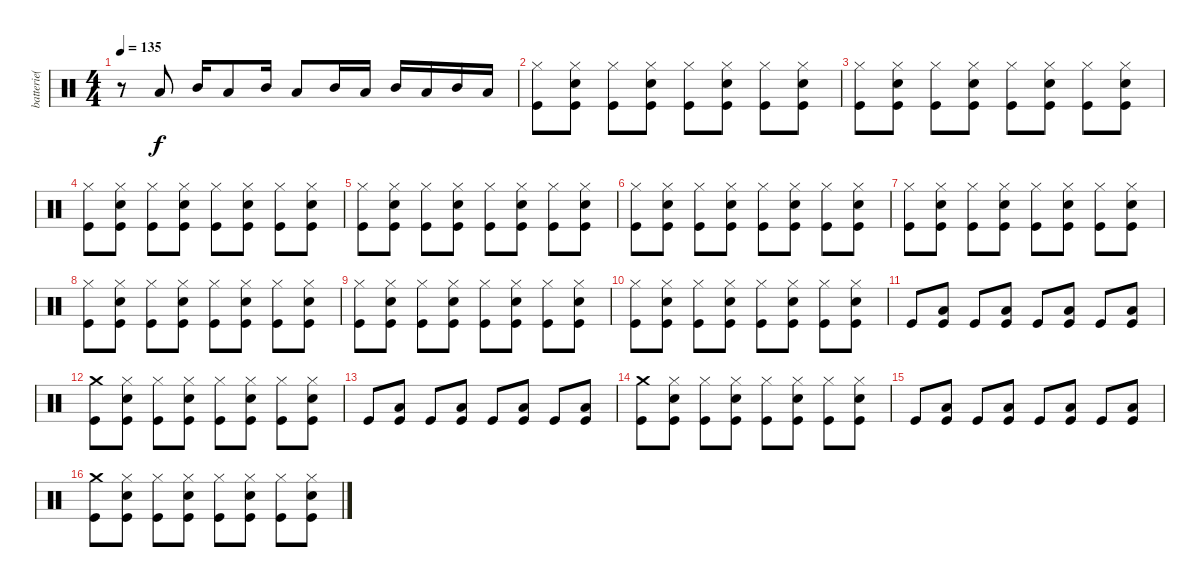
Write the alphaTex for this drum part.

\track ("batterie( Shane )" "batterie( ") {instrument percussion}
\staff {score}
\articulation defaults
\ts (4 4)
\tempo 135
\clef neutral
\ks c
r.8{dy f} "Low Tom (hit)".8 "Mid Tom (hit)".16 "Low Tom (hit)".8 "Mid Tom (hit)".16 "Low Tom (hit)".8 "Mid Tom (hit)".16 "Low Tom (hit)".16 "Mid Tom (hit)".16 "Low Tom (hit)".16 "Mid Tom (hit)".16 "Low Tom (hit)".16 |
("Hi-Hat (closed)" "Kick (hit)").8 ("Hi-Hat (closed)" "Snare (hit) 2" "Kick (hit)").8 ("Hi-Hat (closed)" "Kick (hit)").8 ("Hi-Hat (closed)" "Snare (hit) 2" "Kick (hit)").8 ("Hi-Hat (closed)" "Kick (hit)").8 ("Hi-Hat (closed)" "Snare (hit) 2" "Kick (hit)").8 ("Hi-Hat (closed)" "Kick (hit)").8 ("Hi-Hat (closed)" "Snare (hit) 2" "Kick (hit)").8 |
("Hi-Hat (closed)" "Kick (hit)").8 ("Hi-Hat (closed)" "Snare (hit) 2" "Kick (hit)").8 ("Hi-Hat (closed)" "Kick (hit)").8 ("Hi-Hat (closed)" "Snare (hit) 2" "Kick (hit)").8 ("Hi-Hat (closed)" "Kick (hit)").8 ("Hi-Hat (closed)" "Snare (hit) 2" "Kick (hit)").8 ("Hi-Hat (closed)" "Kick (hit)").8 ("Hi-Hat (closed)" "Snare (hit) 2" "Kick (hit)").8 |
("Hi-Hat (closed)" "Kick (hit)").8 ("Hi-Hat (closed)" "Snare (hit) 2" "Kick (hit)").8 ("Hi-Hat (closed)" "Kick (hit)").8 ("Hi-Hat (closed)" "Snare (hit) 2" "Kick (hit)").8 ("Hi-Hat (closed)" "Kick (hit)").8 ("Hi-Hat (closed)" "Snare (hit) 2" "Kick (hit)").8 ("Hi-Hat (closed)" "Kick (hit)").8 ("Hi-Hat (closed)" "Snare (hit) 2" "Kick (hit)").8 |
("Hi-Hat (closed)" "Kick (hit)").8 ("Hi-Hat (closed)" "Snare (hit) 2" "Kick (hit)").8 ("Hi-Hat (closed)" "Kick (hit)").8 ("Hi-Hat (closed)" "Snare (hit) 2" "Kick (hit)").8 ("Hi-Hat (closed)" "Kick (hit)").8 ("Hi-Hat (closed)" "Snare (hit) 2" "Kick (hit)").8 ("Hi-Hat (closed)" "Kick (hit)").8 ("Hi-Hat (closed)" "Snare (hit) 2" "Kick (hit)").8 |
("Hi-Hat (closed)" "Kick (hit)").8 ("Hi-Hat (closed)" "Snare (hit) 2" "Kick (hit)").8 ("Hi-Hat (closed)" "Kick (hit)").8 ("Hi-Hat (closed)" "Snare (hit) 2" "Kick (hit)").8 ("Hi-Hat (closed)" "Kick (hit)").8 ("Hi-Hat (closed)" "Snare (hit) 2" "Kick (hit)").8 ("Hi-Hat (closed)" "Kick (hit)").8 ("Hi-Hat (closed)" "Snare (hit) 2" "Kick (hit)").8 |
("Hi-Hat (closed)" "Kick (hit)").8 ("Hi-Hat (closed)" "Snare (hit) 2" "Kick (hit)").8 ("Hi-Hat (closed)" "Kick (hit)").8 ("Hi-Hat (closed)" "Snare (hit) 2" "Kick (hit)").8 ("Hi-Hat (closed)" "Kick (hit)").8 ("Hi-Hat (closed)" "Snare (hit) 2" "Kick (hit)").8 ("Hi-Hat (closed)" "Kick (hit)").8 ("Hi-Hat (closed)" "Snare (hit) 2" "Kick (hit)").8 |
("Hi-Hat (closed)" "Kick (hit)").8 ("Hi-Hat (closed)" "Snare (hit) 2" "Kick (hit)").8 ("Hi-Hat (closed)" "Kick (hit)").8 ("Hi-Hat (closed)" "Snare (hit) 2" "Kick (hit)").8 ("Hi-Hat (closed)" "Kick (hit)").8 ("Hi-Hat (closed)" "Snare (hit) 2" "Kick (hit)").8 ("Hi-Hat (closed)" "Kick (hit)").8 ("Hi-Hat (closed)" "Snare (hit) 2" "Kick (hit)").8 |
("Hi-Hat (closed)" "Kick (hit)").8 ("Hi-Hat (closed)" "Snare (hit) 2" "Kick (hit)").8 ("Hi-Hat (closed)" "Kick (hit)").8 ("Hi-Hat (closed)" "Snare (hit) 2" "Kick (hit)").8 ("Hi-Hat (closed)" "Kick (hit)").8 ("Hi-Hat (closed)" "Snare (hit) 2" "Kick (hit)").8 ("Hi-Hat (closed)" "Kick (hit)").8 ("Hi-Hat (closed)" "Snare (hit) 2" "Kick (hit)").8 |
("Hi-Hat (closed)" "Kick (hit)").8 ("Hi-Hat (closed)" "Snare (hit) 2" "Kick (hit)").8 ("Hi-Hat (closed)" "Kick (hit)").8 ("Hi-Hat (closed)" "Snare (hit) 2" "Kick (hit)").8 ("Hi-Hat (closed)" "Kick (hit)").8 ("Hi-Hat (closed)" "Snare (hit) 2" "Kick (hit)").8 ("Hi-Hat (closed)" "Kick (hit)").8 ("Hi-Hat (closed)" "Snare (hit) 2" "Kick (hit)").8 |
"Kick (hit)".8 ("Low Floor Tom (hit)" "Kick (hit)").8 "Kick (hit)".8 ("Low Floor Tom (hit)" "Kick (hit)").8 "Kick (hit)".8 ("Low Floor Tom (hit)" "Kick (hit)").8 "Kick (hit)".8 ("Low Floor Tom (hit)" "Kick (hit)").8 |
("Crash medium (hit)" "Kick (hit)").8 ("Hi-Hat (closed)" "Snare (hit) 2" "Kick (hit)").8 ("Hi-Hat (closed)" "Kick (hit)").8 ("Hi-Hat (closed)" "Snare (hit) 2" "Kick (hit)").8 ("Hi-Hat (closed)" "Kick (hit)").8 ("Hi-Hat (closed)" "Snare (hit) 2" "Kick (hit)").8 ("Hi-Hat (closed)" "Kick (hit)").8 ("Hi-Hat (closed)" "Snare (hit) 2" "Kick (hit)").8 |
"Kick (hit)".8 ("Low Floor Tom (hit)" "Kick (hit)").8 "Kick (hit)".8 ("Low Floor Tom (hit)" "Kick (hit)").8 "Kick (hit)".8 ("Low Floor Tom (hit)" "Kick (hit)").8 "Kick (hit)".8 ("Low Floor Tom (hit)" "Kick (hit)").8 |
("Crash medium (hit)" "Kick (hit)").8 ("Hi-Hat (closed)" "Snare (hit) 2" "Kick (hit)").8 ("Hi-Hat (closed)" "Kick (hit)").8 ("Hi-Hat (closed)" "Snare (hit) 2" "Kick (hit)").8 ("Hi-Hat (closed)" "Kick (hit)").8 ("Hi-Hat (closed)" "Snare (hit) 2" "Kick (hit)").8 ("Hi-Hat (closed)" "Kick (hit)").8 ("Hi-Hat (closed)" "Snare (hit) 2" "Kick (hit)").8 |
"Kick (hit)".8 ("Low Floor Tom (hit)" "Kick (hit)").8 "Kick (hit)".8 ("Low Floor Tom (hit)" "Kick (hit)").8 "Kick (hit)".8 ("Low Floor Tom (hit)" "Kick (hit)").8 "Kick (hit)".8 ("Low Floor Tom (hit)" "Kick (hit)").8 |
("Crash medium (hit)" "Kick (hit)").8 ("Hi-Hat (closed)" "Snare (hit) 2" "Kick (hit)").8 ("Hi-Hat (closed)" "Kick (hit)").8 ("Hi-Hat (closed)" "Snare (hit) 2" "Kick (hit)").8 ("Hi-Hat (closed)" "Kick (hit)").8 ("Hi-Hat (closed)" "Snare (hit) 2" "Kick (hit)").8 ("Hi-Hat (closed)" "Kick (hit)").8 ("Hi-Hat (closed)" "Snare (hit) 2" "Kick (hit)").8
